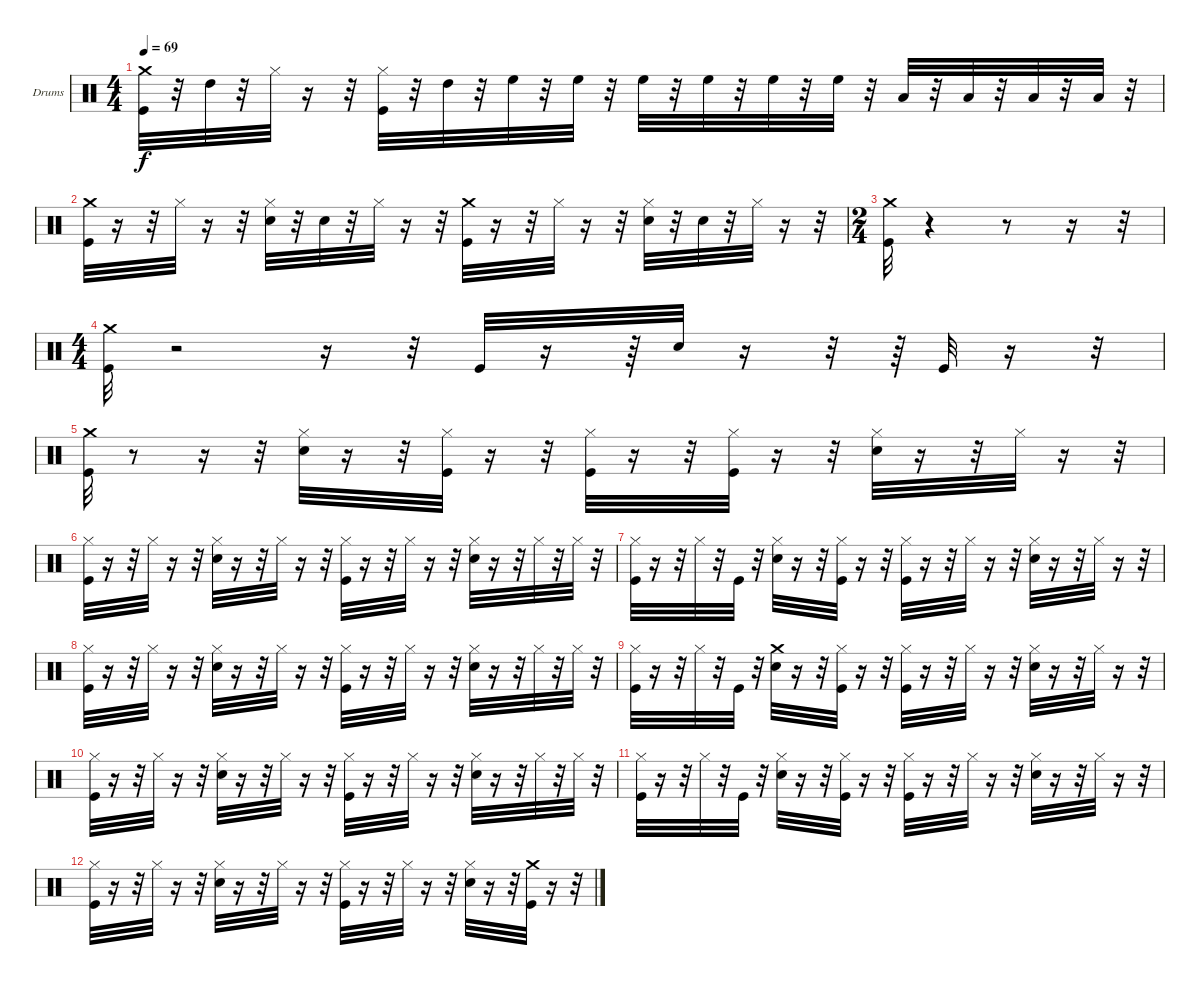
\defaultSystemsLayout 4
\bracketExtendMode groupsimilarinstruments
\firstSystemTrackNameOrientation horizontal
\otherSystemsTrackNameOrientation horizontal
\track ("Drumkit" "Drums") {instrument percussion}
\staff {score}
\articulation defaults
\ts (4 4)
\tempo 69
\clef neutral
\scale
0.333333
\ks c
("Kick (hit)" "Crash medium (hit)").32{dy f} r.32 "High Tom (hit)".32 r.32 "Hi-Hat (closed)".32 r.16 r.32 ("Hi-Hat (closed)" "Kick (hit)").32 r.32 "High Tom (hit)".32 r.32 "High Floor Tom (hit)".32 r.32 "High Floor Tom (hit)".32 r.32 "High Floor Tom (hit)".32 r.32 "High Floor Tom (hit)".32 r.32 "High Floor Tom (hit)".32 r.32 "High Floor Tom (hit)".32 r.32 "Low Tom (hit)".32 r.32 "Low Tom (hit)".32 r.32 "Low Tom (hit)".32 r.32 "Low Tom (hit)".32 r.32 |
\scale
0.333333 ("Kick (hit)" "Crash medium (hit)").32 r.16 r.32 "Hi-Hat (closed)".32 r.16 r.32 ("Snare (hit) 2" "Hi-Hat (closed)").32 r.32 "Snare (hit) 2".32 r.32 "Hi-Hat (closed)".32 r.16 r.32 ("Crash medium (hit)" "Kick (hit)").32 r.16 r.32 "Hi-Hat (closed)".32 r.16 r.32 ("Snare (hit) 2" "Hi-Hat (closed)").32 r.32 "Snare (hit) 2".32 r.32 "Hi-Hat (closed)".32 r.16 r.32 |
\ts (2 4)
\scale
0.391473 ("Kick (hit)" "Crash medium (hit)").32 r.4 r.8 r.16 r.32 |
\ts (4 4)
\scale
0.391473 ("Crash medium (hit)" "Kick (hit)").32 r.2 r.16 r.32 "Kick (hit)".32 r.16 r.64 "Snare (hit) 2".32 r.16 r.32 r.64 "Kick (hit)".32 r.16 r.32 |
\scale
0.217054 ("Kick (hit)" "Crash medium (hit)").32 r.8 r.16 r.32 ("Hi-Hat (closed)" "Snare (hit) 2").32 r.16 r.32 ("Hi-Hat (closed)" "Kick (hit)").32 r.16 r.32 ("Hi-Hat (closed)" "Kick (hit)").32 r.16 r.32 ("Hi-Hat (closed)" "Kick (hit)").32 r.16 r.32 ("Hi-Hat (closed)" "Snare (hit) 2").32 r.16 r.32 "Hi-Hat (closed)".32 r.16 r.32 |
\scale
0.333333 ("Hi-Hat (closed)" "Kick (hit)").32 r.16 r.32 "Hi-Hat (closed)".32 r.16 r.32 ("Snare (hit) 2" "Hi-Hat (closed)").32 r.16 r.32 "Hi-Hat (closed)".32 r.16 r.32 ("Hi-Hat (closed)" "Kick (hit)").32 r.16 r.32 "Hi-Hat (closed)".32 r.16 r.32 ("Hi-Hat (closed)" "Snare (hit) 2").32 r.16 r.32 "Hi-Hat (closed)".32 r.32 "Hi-Hat (closed)".32 r.32 |
\scale
0.333333 ("Hi-Hat (closed)" "Kick (hit)").32 r.16 r.32 "Hi-Hat (closed)".32 r.32 "Kick (hit)".32 r.32 ("Snare (hit) 2" "Hi-Hat (closed)").32 r.16 r.32 ("Kick (hit)" "Hi-Hat (closed)").32 r.16 r.32 ("Hi-Hat (closed)" "Kick (hit)").32 r.16 r.32 "Hi-Hat (closed)".32 r.16 r.32 ("Snare (hit) 2" "Hi-Hat (closed)").32 r.16 r.32 "Hi-Hat (closed)".32 r.16 r.32 |
\scale
0.333333 ("Hi-Hat (closed)" "Kick (hit)").32 r.16 r.32 "Hi-Hat (closed)".32 r.16 r.32 ("Snare (hit) 2" "Hi-Hat (closed)").32 r.16 r.32 "Hi-Hat (closed)".32 r.16 r.32 ("Kick (hit)" "Hi-Hat (closed)").32 r.16 r.32 "Hi-Hat (closed)".32 r.16 r.32 ("Hi-Hat (closed)" "Snare (hit) 2").32 r.16 r.32 "Hi-Hat (closed)".32 r.32 "Hi-Hat (closed)".32 r.32 |
\scale
0.333333 ("Hi-Hat (closed)" "Kick (hit)").32 r.16 r.32 "Hi-Hat (closed)".32 r.32 "Kick (hit)".32 r.32 ("Crash medium (hit)" "Snare (hit) 2").32 r.16 r.32 ("Hi-Hat (closed)" "Kick (hit)").32 r.16 r.32 ("Hi-Hat (closed)" "Kick (hit)").32 r.16 r.32 "Hi-Hat (closed)".32 r.16 r.32 ("Snare (hit) 2" "Hi-Hat (closed)").32 r.16 r.32 "Hi-Hat (closed)".32 r.16 r.32 |
\scale
0.333333 ("Hi-Hat (closed)" "Kick (hit)").32 r.16 r.32 "Hi-Hat (closed)".32 r.16 r.32 ("Snare (hit) 2" "Hi-Hat (closed)").32 r.16 r.32 "Hi-Hat (closed)".32 r.16 r.32 ("Kick (hit)" "Hi-Hat (closed)").32 r.16 r.32 "Hi-Hat (closed)".32 r.16 r.32 ("Hi-Hat (closed)" "Snare (hit) 2").32 r.16 r.32 "Hi-Hat (closed)".32 r.32 "Hi-Hat (closed)".32 r.32 |
\scale
0.333333 ("Hi-Hat (closed)" "Kick (hit)").32 r.16 r.32 "Hi-Hat (closed)".32 r.32 "Kick (hit)".32 r.32 ("Snare (hit) 2" "Hi-Hat (closed)").32 r.16 r.32 ("Kick (hit)" "Hi-Hat (closed)").32 r.16 r.32 ("Hi-Hat (closed)" "Kick (hit)").32 r.16 r.32 "Hi-Hat (closed)".32 r.16 r.32 ("Snare (hit) 2" "Hi-Hat (closed)").32 r.16 r.32 "Hi-Hat (closed)".32 r.16 r.32 |
("Hi-Hat (closed)" "Kick (hit)").32 r.16 r.32 "Hi-Hat (closed)".32 r.16 r.32 ("Snare (hit) 2" "Hi-Hat (closed)").32 r.16 r.32 "Hi-Hat (closed)".32 r.16 r.32 ("Hi-Hat (closed)" "Kick (hit)").32 r.16 r.32 "Hi-Hat (closed)".32 r.16 r.32 ("Snare (hit) 2" "Hi-Hat (closed)").32 r.16 r.32 ("Crash medium (hit)" "Kick (hit)").32 r.16 r.32
